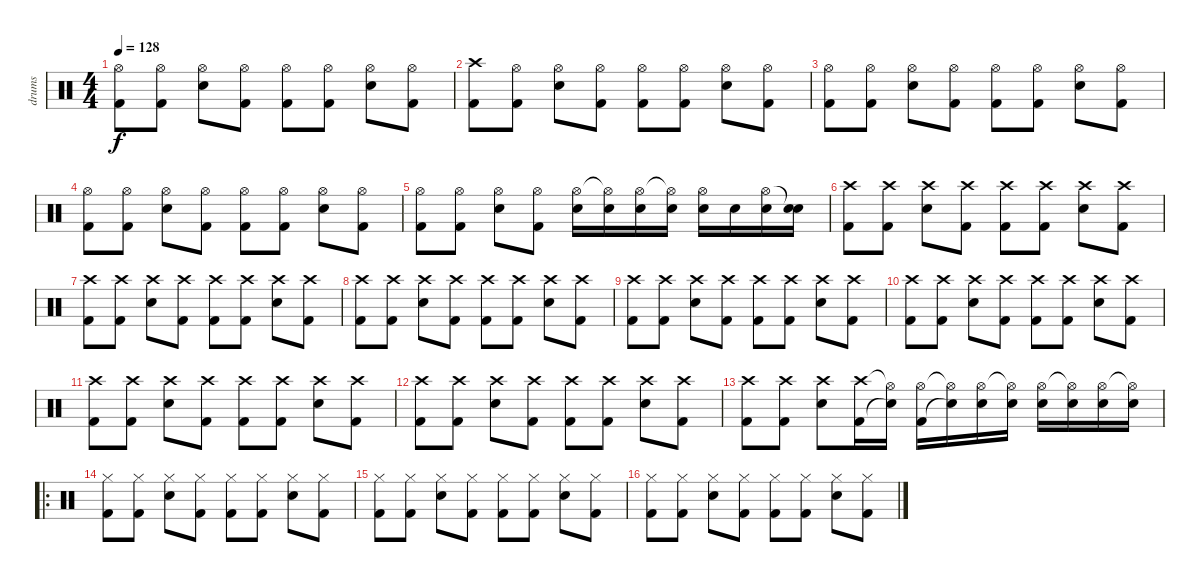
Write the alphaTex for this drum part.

\track ("drums" "drums") {instrument percussion}
\staff {score}
\articulation defaults
\ts (4 4)
\tempo 128
\clef neutral
\ks c
("Hi-Hat (open)" "Kick (hit) 2").8{dy f} ("Hi-Hat (open)" "Kick (hit) 2").8 ("Hi-Hat (open)" "Electric Snare (hit)").8 ("Hi-Hat (open)" "Kick (hit) 2").8 ("Hi-Hat (open)" "Kick (hit) 2").8 ("Hi-Hat (open)" "Kick (hit) 2").8 ("Hi-Hat (open)" "Electric Snare (hit)").8 ("Hi-Hat (open)" "Kick (hit) 2").8 |
("Crash high (hit)" "Kick (hit) 2").8 ("Hi-Hat (open)" "Kick (hit) 2").8 ("Hi-Hat (open)" "Electric Snare (hit)").8 ("Hi-Hat (open)" "Kick (hit) 2").8 ("Hi-Hat (open)" "Kick (hit) 2").8 ("Hi-Hat (open)" "Kick (hit) 2").8 ("Hi-Hat (open)" "Electric Snare (hit)").8 ("Hi-Hat (open)" "Kick (hit) 2").8 |
("Hi-Hat (open)" "Kick (hit) 2").8 ("Hi-Hat (open)" "Kick (hit) 2").8 ("Hi-Hat (open)" "Electric Snare (hit)").8 ("Hi-Hat (open)" "Kick (hit) 2").8 ("Hi-Hat (open)" "Kick (hit) 2").8 ("Hi-Hat (open)" "Kick (hit) 2").8 ("Hi-Hat (open)" "Electric Snare (hit)").8 ("Hi-Hat (open)" "Kick (hit) 2").8 |
("Hi-Hat (open)" "Kick (hit) 2").8 ("Hi-Hat (open)" "Kick (hit) 2").8 ("Hi-Hat (open)" "Electric Snare (hit)").8 ("Hi-Hat (open)" "Kick (hit) 2").8 ("Hi-Hat (open)" "Kick (hit) 2").8 ("Hi-Hat (open)" "Kick (hit) 2").8 ("Hi-Hat (open)" "Electric Snare (hit)").8 ("Hi-Hat (open)" "Kick (hit) 2").8 |
("Hi-Hat (open)" "Kick (hit) 2").8 ("Hi-Hat (open)" "Kick (hit) 2").8 ("Hi-Hat (open)" "Electric Snare (hit)").8 ("Hi-Hat (open)" "Kick (hit) 2").8 ("Hi-Hat (open)" "Electric Snare (hit)").16 ("Hi-Hat (open)"{t} "Electric Snare (hit)").16 ("Hi-Hat (open)" "Electric Snare (hit)").16 ("Hi-Hat (open)"{t} "Electric Snare (hit)").16 ("Hi-Hat (open)" "Electric Snare (hit)").16 "Electric Snare (hit)".16 ("Hi-Hat (open)" "Electric Snare (hit)").16 ("Snare (hit)"{t} "Electric Snare (hit)").16 |
("Crash high (hit)" "Kick (hit) 2").8 ("Crash high (hit)" "Kick (hit) 2").8 ("Crash high (hit)" "Electric Snare (hit)").8 ("Crash high (hit)" "Kick (hit) 2").8 ("Crash high (hit)" "Kick (hit) 2").8 ("Crash high (hit)" "Kick (hit) 2").8 ("Crash high (hit)" "Electric Snare (hit)").8 ("Crash high (hit)" "Kick (hit) 2").8 |
("Crash high (hit)" "Kick (hit) 2").8 ("Crash high (hit)" "Kick (hit) 2").8 ("Crash high (hit)" "Electric Snare (hit)").8 ("Crash high (hit)" "Kick (hit) 2").8 ("Crash high (hit)" "Kick (hit) 2").8 ("Crash high (hit)" "Kick (hit) 2").8 ("Crash high (hit)" "Electric Snare (hit)").8 ("Crash high (hit)" "Kick (hit) 2").8 |
("Crash high (hit)" "Kick (hit) 2").8 ("Crash high (hit)" "Kick (hit) 2").8 ("Crash high (hit)" "Electric Snare (hit)").8 ("Crash high (hit)" "Kick (hit) 2").8 ("Crash high (hit)" "Kick (hit) 2").8 ("Crash high (hit)" "Kick (hit) 2").8 ("Crash high (hit)" "Electric Snare (hit)").8 ("Crash high (hit)" "Kick (hit) 2").8 |
("Crash high (hit)" "Kick (hit) 2").8 ("Crash high (hit)" "Kick (hit) 2").8 ("Crash high (hit)" "Electric Snare (hit)").8 ("Crash high (hit)" "Kick (hit) 2").8 ("Crash high (hit)" "Kick (hit) 2").8 ("Crash high (hit)" "Kick (hit) 2").8 ("Crash high (hit)" "Electric Snare (hit)").8 ("Crash high (hit)" "Kick (hit) 2").8 |
("Crash high (hit)" "Kick (hit) 2").8 ("Crash high (hit)" "Kick (hit) 2").8 ("Crash high (hit)" "Electric Snare (hit)").8 ("Crash high (hit)" "Kick (hit) 2").8 ("Crash high (hit)" "Kick (hit) 2").8 ("Crash high (hit)" "Kick (hit) 2").8 ("Crash high (hit)" "Electric Snare (hit)").8 ("Crash high (hit)" "Kick (hit) 2").8 |
("Crash high (hit)" "Kick (hit) 2").8 ("Crash high (hit)" "Kick (hit) 2").8 ("Crash high (hit)" "Electric Snare (hit)").8 ("Crash high (hit)" "Kick (hit) 2").8 ("Crash high (hit)" "Kick (hit) 2").8 ("Crash high (hit)" "Kick (hit) 2").8 ("Crash high (hit)" "Electric Snare (hit)").8 ("Crash high (hit)" "Kick (hit) 2").8 |
("Crash high (hit)" "Kick (hit) 2").8 ("Crash high (hit)" "Kick (hit) 2").8 ("Crash high (hit)" "Electric Snare (hit)").8 ("Crash high (hit)" "Kick (hit) 2").8 ("Crash high (hit)" "Kick (hit) 2").8 ("Crash high (hit)" "Kick (hit) 2").8 ("Crash high (hit)" "Electric Snare (hit)").8 ("Crash high (hit)" "Kick (hit) 2").8 |
("Crash high (hit)" "Kick (hit) 2").8 ("Crash high (hit)" "Kick (hit) 2").8 ("Crash high (hit)" "Electric Snare (hit)").8 ("Crash high (hit)" "Kick (hit) 2").16 ("Hi-Hat (open)"{t} "Electric Snare (hit)"{t}).16 ("Hi-Hat (open)" "Kick (hit) 2").16 ("Hi-Hat (open)"{t} "Electric Snare (hit)"{t}).16 ("Hi-Hat (open)" "Electric Snare (hit)").16 ("Hi-Hat (open)"{t} "Electric Snare (hit)").16 ("Hi-Hat (open)" "Electric Snare (hit)").16 ("Hi-Hat (open)"{t} "Electric Snare (hit)").16 ("Hi-Hat (open)" "Electric Snare (hit)").16 ("Hi-Hat (open)"{t} "Electric Snare (hit)").16 |
\ro
("Hi-Hat (closed)" "Kick (hit) 2").8 ("Hi-Hat (closed)" "Kick (hit) 2").8 ("Hi-Hat (closed)" "Electric Snare (hit)").8 ("Hi-Hat (closed)" "Kick (hit) 2").8 ("Hi-Hat (closed)" "Kick (hit) 2").8 ("Hi-Hat (closed)" "Kick (hit) 2").8 ("Hi-Hat (closed)" "Electric Snare (hit)").8 ("Hi-Hat (closed)" "Kick (hit) 2").8 |
("Hi-Hat (closed)" "Kick (hit) 2").8 ("Hi-Hat (closed)" "Kick (hit) 2").8 ("Hi-Hat (closed)" "Electric Snare (hit)").8 ("Hi-Hat (closed)" "Kick (hit) 2").8 ("Hi-Hat (closed)" "Kick (hit) 2").8 ("Hi-Hat (closed)" "Kick (hit) 2").8 ("Hi-Hat (closed)" "Electric Snare (hit)").8 ("Hi-Hat (closed)" "Kick (hit) 2").8 |
("Hi-Hat (closed)" "Kick (hit) 2").8 ("Hi-Hat (closed)" "Kick (hit) 2").8 ("Hi-Hat (closed)" "Electric Snare (hit)").8 ("Hi-Hat (closed)" "Kick (hit) 2").8 ("Hi-Hat (closed)" "Kick (hit) 2").8 ("Hi-Hat (closed)" "Kick (hit) 2").8 ("Hi-Hat (closed)" "Electric Snare (hit)").8 ("Hi-Hat (closed)" "Kick (hit) 2").8
